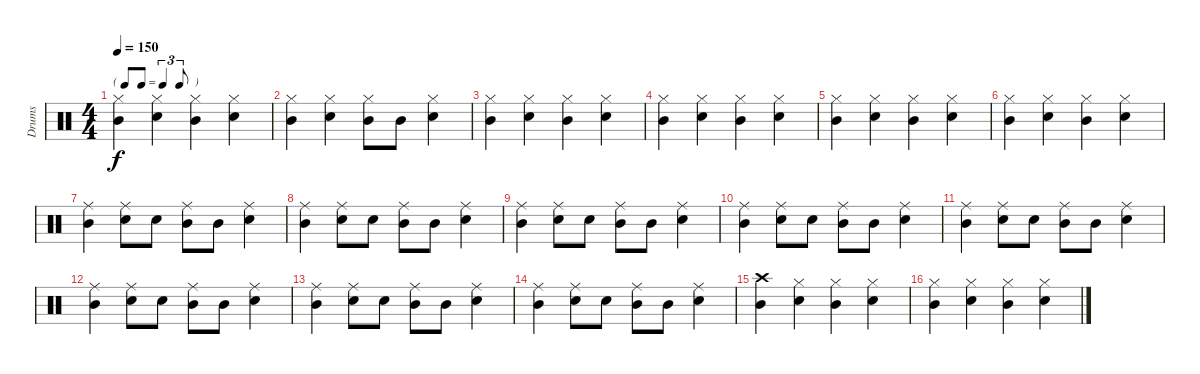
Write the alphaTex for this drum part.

\track ("Drums" "Drums") {instrument percussion}
\staff {score}
\articulation defaults
\ts (4 4)
\tf triplet8th
\tempo 150
\clef neutral
\ks c
("Mid Tom (hit)" "Hi-Hat (closed)").4{dy f} ("Snare (hit) 2" "Hi-Hat (closed)").4 ("Mid Tom (hit)" "Hi-Hat (closed)").4 ("Snare (hit) 2" "Hi-Hat (closed)").4 |
("Mid Tom (hit)" "Hi-Hat (closed)").4 ("Snare (hit) 2" "Hi-Hat (closed)").4 ("Mid Tom (hit)" "Hi-Hat (closed)").8 "Mid Tom (hit)".8 ("Snare (hit) 2" "Hi-Hat (closed)").4 |
("Mid Tom (hit)" "Hi-Hat (closed)").4 ("Snare (hit) 2" "Hi-Hat (closed)").4 ("Mid Tom (hit)" "Hi-Hat (closed)").4 ("Snare (hit) 2" "Hi-Hat (closed)").4 |
("Mid Tom (hit)" "Hi-Hat (closed)").4 ("Snare (hit) 2" "Hi-Hat (closed)").4 ("Mid Tom (hit)" "Hi-Hat (closed)").4 ("Snare (hit) 2" "Hi-Hat (closed)").4 |
("Mid Tom (hit)" "Hi-Hat (closed)").4 ("Snare (hit) 2" "Hi-Hat (closed)").4 ("Mid Tom (hit)" "Hi-Hat (closed)").4 ("Snare (hit) 2" "Hi-Hat (closed)").4 |
("Mid Tom (hit)" "Hi-Hat (closed)").4 ("Snare (hit) 2" "Hi-Hat (closed)").4 ("Mid Tom (hit)" "Hi-Hat (closed)").4 ("Snare (hit) 2" "Hi-Hat (closed)").4 |
("Mid Tom (hit)" "Ride (middle)").4 ("Snare (hit) 2" "Ride (middle)").8 "Snare (hit) 2".8 ("Mid Tom (hit)" "Ride (middle)").8 "Mid Tom (hit)".8 ("Snare (hit) 2" "Ride (middle)").4 |
("Mid Tom (hit)" "Ride (middle)").4 ("Snare (hit) 2" "Ride (middle)").8 "Snare (hit) 2".8 ("Mid Tom (hit)" "Ride (middle)").8 "Mid Tom (hit)".8 ("Snare (hit) 2" "Ride (middle)").4 |
("Mid Tom (hit)" "Ride (middle)").4 ("Snare (hit) 2" "Ride (middle)").8 "Snare (hit) 2".8 ("Mid Tom (hit)" "Ride (middle)").8 "Mid Tom (hit)".8 ("Snare (hit) 2" "Ride (middle)").4 |
("Mid Tom (hit)" "Ride (middle)").4 ("Snare (hit) 2" "Ride (middle)").8 "Snare (hit) 2".8 ("Mid Tom (hit)" "Ride (middle)").8 "Mid Tom (hit)".8 ("Snare (hit) 2" "Ride (middle)").4 |
("Mid Tom (hit)" "Ride (middle)").4 ("Snare (hit) 2" "Ride (middle)").8 "Snare (hit) 2".8 ("Mid Tom (hit)" "Ride (middle)").8 "Mid Tom (hit)".8 ("Snare (hit) 2" "Ride (middle)").4 |
("Mid Tom (hit)" "Ride (middle)").4 ("Snare (hit) 2" "Ride (middle)").8 "Snare (hit) 2".8 ("Mid Tom (hit)" "Ride (middle)").8 "Mid Tom (hit)".8 ("Snare (hit) 2" "Ride (middle)").4 |
("Mid Tom (hit)" "Ride (middle)").4 ("Snare (hit) 2" "Ride (middle)").8 "Snare (hit) 2".8 ("Mid Tom (hit)" "Ride (middle)").8 "Mid Tom (hit)".8 ("Snare (hit) 2" "Ride (middle)").4 |
("Mid Tom (hit)" "Ride (middle)").4 ("Snare (hit) 2" "Ride (middle)").8 "Snare (hit) 2".8 ("Mid Tom (hit)" "Ride (middle)").8 "Mid Tom (hit)".8 ("Snare (hit) 2" "Ride (middle)").4 |
("Mid Tom (hit)" "Crash high (hit)").4 ("Snare (hit) 2" "Hi-Hat (closed)").4 ("Mid Tom (hit)" "Hi-Hat (closed)").4 ("Snare (hit) 2" "Hi-Hat (closed)").4 |
("Mid Tom (hit)" "Hi-Hat (closed)").4 ("Snare (hit) 2" "Hi-Hat (closed)").4 ("Mid Tom (hit)" "Hi-Hat (closed)").4 ("Snare (hit) 2" "Hi-Hat (closed)").4
